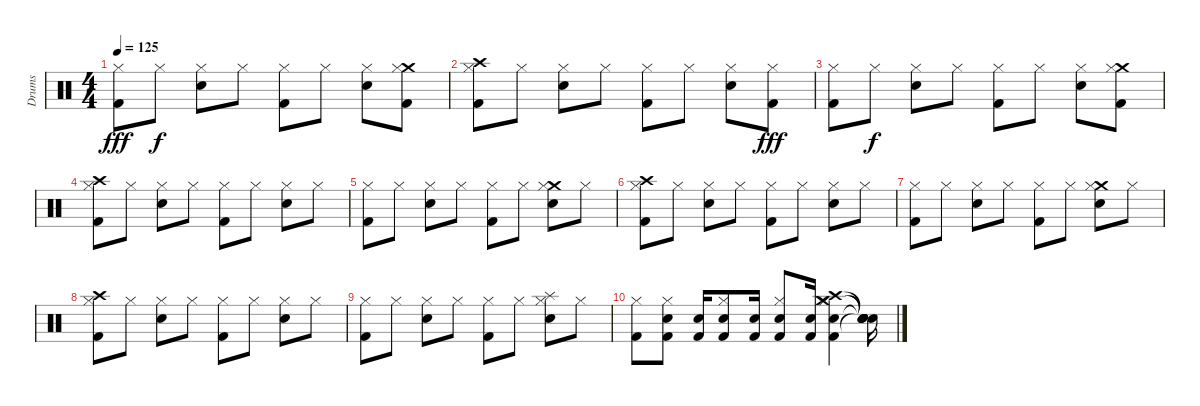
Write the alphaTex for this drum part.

\track ("Drums" "Drums") {instrument percussion}
\staff {score}
\articulation defaults
\ts (4 4)
\tempo 125
\clef neutral
\ks c
("Kick (hit) 2" "Hi-Hat (closed)").8{dy fff} "Hi-Hat (closed)".8{dy f} ("Snare (hit) 2" "Hi-Hat (closed)").8 "Hi-Hat (closed)".8 ("Kick (hit) 2" "Hi-Hat (closed)").8 "Hi-Hat (closed)".8 ("Snare (hit) 2" "Hi-Hat (closed)").8 ("Crash medium (hit)" "Kick (hit) 2" "Hi-Hat (closed)").8 |
("Crash high (hit)" "Kick (hit) 2" "Hi-Hat (closed)").8 "Hi-Hat (closed)".8 ("Snare (hit) 2" "Hi-Hat (closed)").8 "Hi-Hat (closed)".8 ("Kick (hit) 2" "Hi-Hat (closed)").8 "Hi-Hat (closed)".8 ("Snare (hit) 2" "Hi-Hat (closed)").8 ("Kick (hit) 2" "Hi-Hat (closed)").8{dy fff} |
("Kick (hit) 2" "Hi-Hat (closed)").8 "Hi-Hat (closed)".8{dy f} ("Snare (hit) 2" "Hi-Hat (closed)").8 "Hi-Hat (closed)".8 ("Kick (hit) 2" "Hi-Hat (closed)").8 "Hi-Hat (closed)".8 ("Snare (hit) 2" "Hi-Hat (closed)").8 ("Crash medium (hit)" "Kick (hit) 2" "Hi-Hat (closed)").8 |
("Hi-Hat (closed)" "Crash high (hit)" "Kick (hit) 2").8 "Hi-Hat (closed)".8 ("Hi-Hat (closed)" "Snare (hit) 2").8 "Hi-Hat (closed)".8 ("Hi-Hat (closed)" "Kick (hit) 2").8 "Hi-Hat (closed)".8 ("Hi-Hat (closed)" "Snare (hit) 2").8 "Hi-Hat (closed)".8 |
("Hi-Hat (closed)" "Kick (hit) 2").8 "Hi-Hat (closed)".8 ("Hi-Hat (closed)" "Snare (hit) 2").8 "Hi-Hat (closed)".8 ("Hi-Hat (closed)" "Kick (hit) 2").8 "Hi-Hat (closed)".8 ("Crash medium (hit)" "Hi-Hat (closed)" "Snare (hit) 2").8 "Hi-Hat (closed)".8 |
("Hi-Hat (closed)" "Crash high (hit)" "Kick (hit) 2").8 "Hi-Hat (closed)".8 ("Hi-Hat (closed)" "Snare (hit) 2").8 "Hi-Hat (closed)".8 ("Hi-Hat (closed)" "Kick (hit) 2").8 "Hi-Hat (closed)".8 ("Hi-Hat (closed)" "Snare (hit) 2").8 "Hi-Hat (closed)".8 |
("Hi-Hat (closed)" "Kick (hit) 2").8 "Hi-Hat (closed)".8 ("Hi-Hat (closed)" "Snare (hit) 2").8 "Hi-Hat (closed)".8 ("Hi-Hat (closed)" "Kick (hit) 2").8 "Hi-Hat (closed)".8 ("Crash medium (hit)" "Hi-Hat (closed)" "Snare (hit) 2").8 "Hi-Hat (closed)".8 |
("Hi-Hat (closed)" "Crash high (hit)" "Kick (hit) 2").8 "Hi-Hat (closed)".8 ("Hi-Hat (closed)" "Snare (hit) 2").8 "Hi-Hat (closed)".8 ("Hi-Hat (closed)" "Kick (hit) 2").8 "Hi-Hat (closed)".8 ("Hi-Hat (closed)" "Snare (hit) 2").8 "Hi-Hat (closed)".8 |
("Hi-Hat (closed)" "Kick (hit) 2").8 "Hi-Hat (closed)".8 ("Hi-Hat (closed)" "Snare (hit) 2").8 "Hi-Hat (closed)".8 ("Hi-Hat (closed)" "Kick (hit) 2").8 "Hi-Hat (closed)".8 ("Splash (hit)" "Hi-Hat (closed)" "Snare (hit) 2").8 "Hi-Hat (closed)".8 |
("Hi-Hat (closed)" "Kick (hit) 2").8 ("Hi-Hat (closed)" "Kick (hit) 2" "Snare (hit) 2").8 ("Kick (hit) 2" "Snare (hit) 2").16 ("Hi-Hat (closed)" "Kick (hit) 2" "Snare (hit) 2").8 ("Kick (hit) 2" "Snare (hit) 2").16 ("Hi-Hat (closed)" "Kick (hit) 2" "Snare (hit) 2").8 ("Kick (hit) 2" "Snare (hit) 2").16 ("Hi-Hat (closed)" "Crash medium (hit)" "Crash high (hit)" "Kick (hit) 2" "Snare (hit) 2").4 ("Snare (hit)"{t} "Snare (hit)"{t} "Snare (hit)"{t} "Snare (hit)"{t} "Snare (hit)"{t}).16
